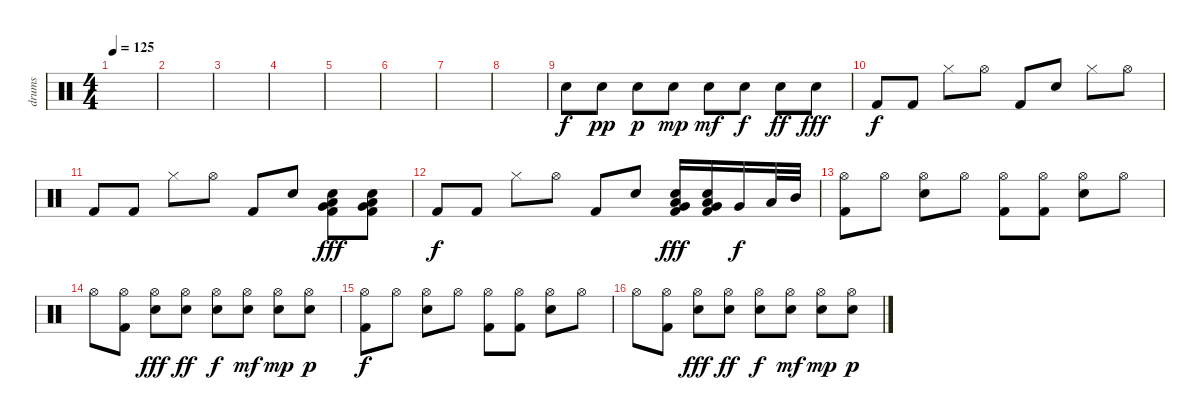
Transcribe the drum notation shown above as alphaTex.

\track ("drums" "drums") {instrument percussion}
\staff {score}
\articulation defaults
\ts (4 4)
\tempo 125
\clef neutral
\ks c
|
|
|
|
|
|
|
|
"Electric Snare (hit)".8 "Electric Snare (hit)".8{dy pp} "Electric Snare (hit)".8{dy p} "Electric Snare (hit)".8{dy mp} "Electric Snare (hit)".8{dy mf} "Electric Snare (hit)".8{dy f} "Electric Snare (hit)".8{dy ff} "Electric Snare (hit)".8{dy fff} |
"Kick (hit) 2".8{dy f} "Kick (hit) 2".8 "Hi-Hat (closed)".8 "Hi-Hat (open)".8 "Kick (hit) 2".8 "Electric Snare (hit)".8 "Hi-Hat (closed)".8 "Hi-Hat (open)".8 |
"Kick (hit) 2".8 "Kick (hit) 2".8 "Hi-Hat (closed)".8 "Hi-Hat (open)".8 "Kick (hit) 2".8 "Electric Snare (hit)".8 ("Kick (hit) 2" "Electric Snare (hit)" "Very Low Tom (hit)" "Low Floor Tom (hit)").8{dy fff} ("Kick (hit) 2" "Electric Snare (hit)" "Very Low Tom (hit)" "Low Floor Tom (hit)").8 |
"Kick (hit) 2".8{dy f} "Kick (hit) 2".8 "Hi-Hat (closed)".8 "Hi-Hat (open)".8 "Kick (hit) 2".8 "Electric Snare (hit)".8 ("Kick (hit) 2" "Electric Snare (hit)" "Very Low Tom (hit)" "Low Floor Tom (hit)").16{dy fff} ("Kick (hit) 2" "Electric Snare (hit)" "Very Low Tom (hit)" "Low Floor Tom (hit)").16 "Very Low Tom (hit)".16{dy f} "Low Tom (hit)".32 "Mid Tom (hit)".32 |
("Hi-Hat (open)" "Kick (hit) 2").8 "Hi-Hat (open)".8 ("Hi-Hat (open)" "Electric Snare (hit)").8 "Hi-Hat (open)".8 ("Hi-Hat (open)" "Kick (hit) 2").8 ("Hi-Hat (open)" "Kick (hit) 2").8 ("Hi-Hat (open)" "Electric Snare (hit)").8 "Hi-Hat (open)".8 |
"Hi-Hat (open)".8 ("Hi-Hat (open)" "Kick (hit) 2").8 ("Hi-Hat (open)" "Electric Snare (hit)").8{dy fff} ("Hi-Hat (open)" "Electric Snare (hit)").8{dy ff} ("Hi-Hat (open)" "Electric Snare (hit)").8{dy f} ("Hi-Hat (open)" "Electric Snare (hit)").8{dy mf} ("Hi-Hat (open)" "Electric Snare (hit)").8{dy mp} ("Hi-Hat (open)" "Electric Snare (hit)").8{dy p} |
("Hi-Hat (open)" "Kick (hit) 2").8{dy f} "Hi-Hat (open)".8 ("Hi-Hat (open)" "Electric Snare (hit)").8 "Hi-Hat (open)".8 ("Hi-Hat (open)" "Kick (hit) 2").8 ("Hi-Hat (open)" "Kick (hit) 2").8 ("Hi-Hat (open)" "Electric Snare (hit)").8 "Hi-Hat (open)".8 |
"Hi-Hat (open)".8 ("Hi-Hat (open)" "Kick (hit) 2").8 ("Hi-Hat (open)" "Electric Snare (hit)").8{dy fff} ("Hi-Hat (open)" "Electric Snare (hit)").8{dy ff} ("Hi-Hat (open)" "Electric Snare (hit)").8{dy f} ("Hi-Hat (open)" "Electric Snare (hit)").8{dy mf} ("Hi-Hat (open)" "Electric Snare (hit)").8{dy mp} ("Hi-Hat (open)" "Electric Snare (hit)").8{dy p}
